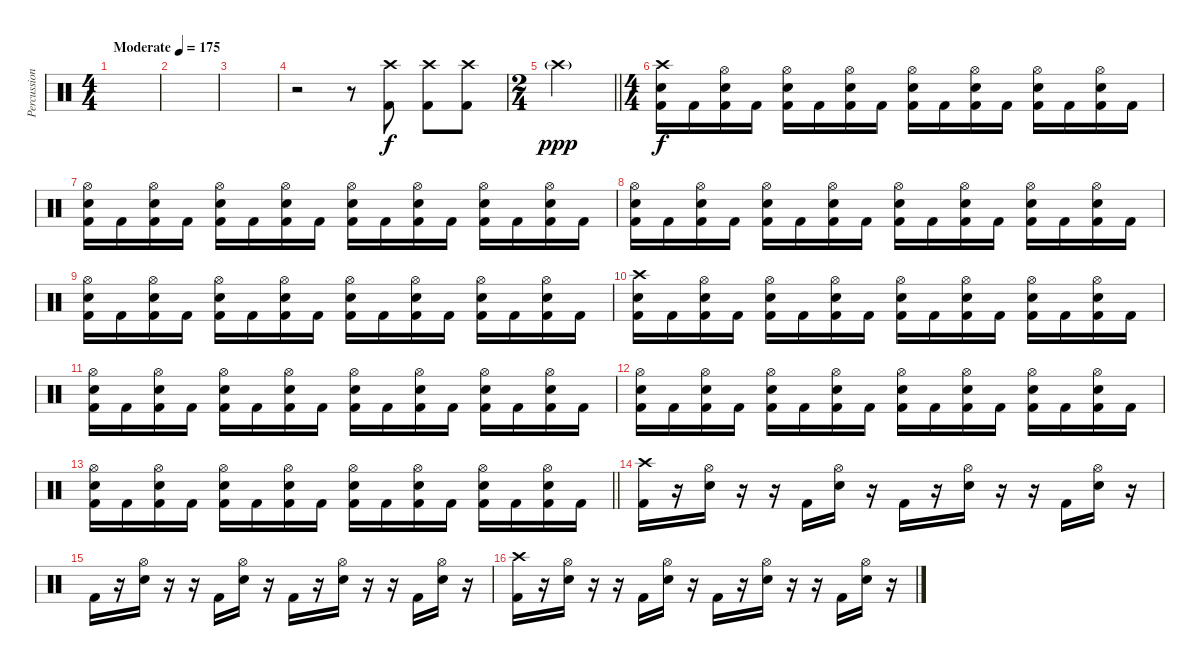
\track ("Percussion" "Percussion") {instrument percussion}
\staff {score}
\articulation defaults
\ts (4 4)
\tempo (175 "Moderate")
\clef neutral
\ks c
|
|
|
r.2 r.8 ("Crash high (hit)" "Kick (hit) 2").8 ("Crash high (hit)" "Kick (hit) 2").8 ("Crash high (hit)" "Kick (hit) 2").8 |
\ts (2 4)
\barLineRight lightlight "Crash high (hit)"{g}.2{dy ppp}
|
\ts (4 4)
\section ("" "")
("Crash high (hit)" "Snare (hit) 2" "Kick (hit) 2").16{dy f} "Kick (hit) 2".16 ("Hi-Hat (open)" "Snare (hit) 2" "Kick (hit) 2").16 "Kick (hit) 2".16 ("Hi-Hat (open)" "Snare (hit) 2" "Kick (hit) 2").16 "Kick (hit) 2".16 ("Hi-Hat (open)" "Snare (hit) 2" "Kick (hit) 2").16 "Kick (hit) 2".16 ("Hi-Hat (open)" "Snare (hit) 2" "Kick (hit) 2").16 "Kick (hit) 2".16 ("Hi-Hat (open)" "Snare (hit) 2" "Kick (hit) 2").16 "Kick (hit) 2".16 ("Hi-Hat (open)" "Snare (hit) 2" "Kick (hit) 2").16 "Kick (hit) 2".16 ("Hi-Hat (open)" "Snare (hit) 2" "Kick (hit) 2").16 "Kick (hit) 2".16 |
("Hi-Hat (open)" "Snare (hit) 2" "Kick (hit) 2").16 "Kick (hit) 2".16 ("Hi-Hat (open)" "Snare (hit) 2" "Kick (hit) 2").16 "Kick (hit) 2".16 ("Hi-Hat (open)" "Snare (hit) 2" "Kick (hit) 2").16 "Kick (hit) 2".16 ("Hi-Hat (open)" "Snare (hit) 2" "Kick (hit) 2").16 "Kick (hit) 2".16 ("Hi-Hat (open)" "Snare (hit) 2" "Kick (hit) 2").16 "Kick (hit) 2".16 ("Hi-Hat (open)" "Snare (hit) 2" "Kick (hit) 2").16 "Kick (hit) 2".16 ("Hi-Hat (open)" "Snare (hit) 2" "Kick (hit) 2").16 "Kick (hit) 2".16 ("Hi-Hat (open)" "Snare (hit) 2" "Kick (hit) 2").16 "Kick (hit) 2".16 |
("Hi-Hat (open)" "Snare (hit) 2" "Kick (hit) 2").16 "Kick (hit) 2".16 ("Hi-Hat (open)" "Snare (hit) 2" "Kick (hit) 2").16 "Kick (hit) 2".16 ("Hi-Hat (open)" "Snare (hit) 2" "Kick (hit) 2").16 "Kick (hit) 2".16 ("Hi-Hat (open)" "Snare (hit) 2" "Kick (hit) 2").16 "Kick (hit) 2".16 ("Hi-Hat (open)" "Snare (hit) 2" "Kick (hit) 2").16 "Kick (hit) 2".16 ("Hi-Hat (open)" "Snare (hit) 2" "Kick (hit) 2").16 "Kick (hit) 2".16 ("Hi-Hat (open)" "Snare (hit) 2" "Kick (hit) 2").16 "Kick (hit) 2".16 ("Hi-Hat (open)" "Snare (hit) 2" "Kick (hit) 2").16 "Kick (hit) 2".16 |
("Hi-Hat (open)" "Snare (hit) 2" "Kick (hit) 2").16 "Kick (hit) 2".16 ("Hi-Hat (open)" "Snare (hit) 2" "Kick (hit) 2").16 "Kick (hit) 2".16 ("Hi-Hat (open)" "Snare (hit) 2" "Kick (hit) 2").16 "Kick (hit) 2".16 ("Hi-Hat (open)" "Snare (hit) 2" "Kick (hit) 2").16 "Kick (hit) 2".16 ("Hi-Hat (open)" "Snare (hit) 2" "Kick (hit) 2").16 "Kick (hit) 2".16 ("Hi-Hat (open)" "Snare (hit) 2" "Kick (hit) 2").16 "Kick (hit) 2".16 ("Hi-Hat (open)" "Snare (hit) 2" "Kick (hit) 2").16 "Kick (hit) 2".16 ("Hi-Hat (open)" "Snare (hit) 2" "Kick (hit) 2").16 "Kick (hit) 2".16 |
("Crash high (hit)" "Snare (hit) 2" "Kick (hit) 2").16 "Kick (hit) 2".16 ("Hi-Hat (open)" "Snare (hit) 2" "Kick (hit) 2").16 "Kick (hit) 2".16 ("Hi-Hat (open)" "Snare (hit) 2" "Kick (hit) 2").16 "Kick (hit) 2".16 ("Hi-Hat (open)" "Snare (hit) 2" "Kick (hit) 2").16 "Kick (hit) 2".16 ("Hi-Hat (open)" "Snare (hit) 2" "Kick (hit) 2").16 "Kick (hit) 2".16 ("Hi-Hat (open)" "Snare (hit) 2" "Kick (hit) 2").16 "Kick (hit) 2".16 ("Hi-Hat (open)" "Snare (hit) 2" "Kick (hit) 2").16 "Kick (hit) 2".16 ("Hi-Hat (open)" "Snare (hit) 2" "Kick (hit) 2").16 "Kick (hit) 2".16 |
("Hi-Hat (open)" "Snare (hit) 2" "Kick (hit) 2").16 "Kick (hit) 2".16 ("Hi-Hat (open)" "Snare (hit) 2" "Kick (hit) 2").16 "Kick (hit) 2".16 ("Hi-Hat (open)" "Snare (hit) 2" "Kick (hit) 2").16 "Kick (hit) 2".16 ("Hi-Hat (open)" "Snare (hit) 2" "Kick (hit) 2").16 "Kick (hit) 2".16 ("Hi-Hat (open)" "Snare (hit) 2" "Kick (hit) 2").16 "Kick (hit) 2".16 ("Hi-Hat (open)" "Snare (hit) 2" "Kick (hit) 2").16 "Kick (hit) 2".16 ("Hi-Hat (open)" "Snare (hit) 2" "Kick (hit) 2").16 "Kick (hit) 2".16 ("Hi-Hat (open)" "Snare (hit) 2" "Kick (hit) 2").16 "Kick (hit) 2".16 |
("Hi-Hat (open)" "Snare (hit) 2" "Kick (hit) 2").16 "Kick (hit) 2".16 ("Hi-Hat (open)" "Snare (hit) 2" "Kick (hit) 2").16 "Kick (hit) 2".16 ("Hi-Hat (open)" "Snare (hit) 2" "Kick (hit) 2").16 "Kick (hit) 2".16 ("Hi-Hat (open)" "Snare (hit) 2" "Kick (hit) 2").16 "Kick (hit) 2".16 ("Hi-Hat (open)" "Snare (hit) 2" "Kick (hit) 2").16 "Kick (hit) 2".16 ("Hi-Hat (open)" "Snare (hit) 2" "Kick (hit) 2").16 "Kick (hit) 2".16 ("Hi-Hat (open)" "Snare (hit) 2" "Kick (hit) 2").16 "Kick (hit) 2".16 ("Hi-Hat (open)" "Snare (hit) 2" "Kick (hit) 2").16 "Kick (hit) 2".16 |
\barLineRight lightlight
("Hi-Hat (open)" "Snare (hit) 2" "Kick (hit) 2").16 "Kick (hit) 2".16 ("Hi-Hat (open)" "Snare (hit) 2" "Kick (hit) 2").16 "Kick (hit) 2".16 ("Hi-Hat (open)" "Snare (hit) 2" "Kick (hit) 2").16 "Kick (hit) 2".16 ("Hi-Hat (open)" "Snare (hit) 2" "Kick (hit) 2").16 "Kick (hit) 2".16 ("Hi-Hat (open)" "Snare (hit) 2" "Kick (hit) 2").16 "Kick (hit) 2".16 ("Hi-Hat (open)" "Snare (hit) 2" "Kick (hit) 2").16 "Kick (hit) 2".16 ("Hi-Hat (open)" "Snare (hit) 2" "Kick (hit) 2").16 "Kick (hit) 2".16 ("Hi-Hat (open)" "Snare (hit) 2" "Kick (hit) 2").16 "Kick (hit) 2".16 |
\section ("" "")
("Crash high (hit)" "Kick (hit) 2").16 r.16 ("Hi-Hat (open)" "Snare (hit) 2").16 r.16 r.16 "Kick (hit) 2".16 ("Hi-Hat (open)" "Snare (hit) 2").16 r.16 "Kick (hit) 2".16 r.16 ("Hi-Hat (open)" "Snare (hit) 2").16 r.16 r.16 "Kick (hit) 2".16 ("Hi-Hat (open)" "Snare (hit) 2").16 r.16 |
"Kick (hit) 2".16 r.16 ("Hi-Hat (open)" "Snare (hit) 2").16 r.16 r.16 "Kick (hit) 2".16 ("Hi-Hat (open)" "Snare (hit) 2").16 r.16 "Kick (hit) 2".16 r.16 ("Hi-Hat (open)" "Snare (hit) 2").16 r.16 r.16 "Kick (hit) 2".16 ("Hi-Hat (open)" "Snare (hit) 2").16 r.16 |
("Crash high (hit)" "Kick (hit) 2").16 r.16 ("Hi-Hat (open)" "Snare (hit) 2").16 r.16 r.16 "Kick (hit) 2".16 ("Hi-Hat (open)" "Snare (hit) 2").16 r.16 "Kick (hit) 2".16 r.16 ("Hi-Hat (open)" "Snare (hit) 2").16 r.16 r.16 "Kick (hit) 2".16 ("Hi-Hat (open)" "Snare (hit) 2").16 r.16
